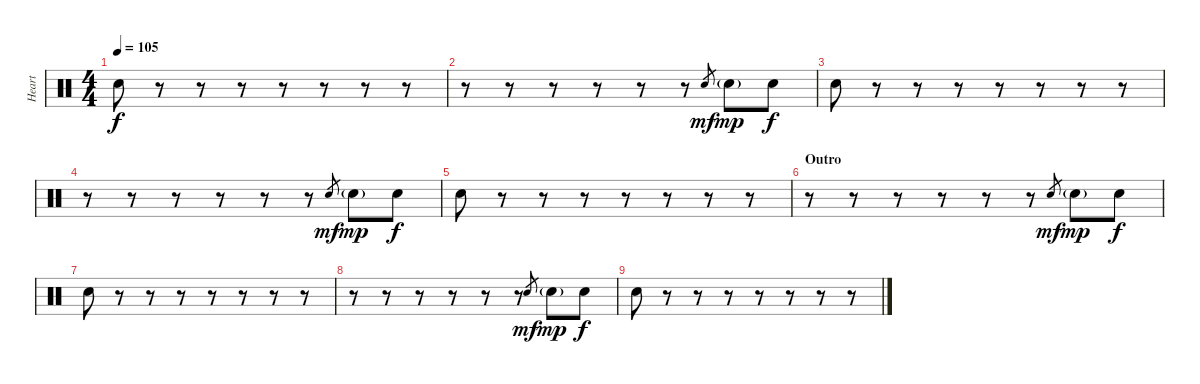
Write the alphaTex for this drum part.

\track ("Heart" "Heart") {instrument percussion}
\staff {score}
\articulation defaults
\ts (4 4)
\tempo 105
\clef neutral
\ks c "Electric Snare (hit)".8{dy f}
r.8 r.8 r.8 r.8 r.8 r.8 r.8 |
r.8 r.8 r.8 r.8 r.8 r.8 "Electric Snare (hit)".8{gr dy mf} "Electric Snare (hit)"{g}.8{dy mp} "Electric Snare (hit)".8{dy f} |
"Electric Snare (hit)".8 r.8 r.8 r.8 r.8 r.8 r.8 r.8 |
r.8 r.8 r.8 r.8 r.8 r.8 "Electric Snare (hit)".8{gr dy mf} "Electric Snare (hit)"{g}.8{dy mp} "Electric Snare (hit)".8{dy f} |
"Electric Snare (hit)".8 r.8 r.8 r.8 r.8 r.8 r.8 r.8 |
\section ("" "Outro")
r.8 r.8 r.8 r.8 r.8 r.8 "Electric Snare (hit)".8{gr dy mf} "Electric Snare (hit)"{g}.8{dy mp} "Electric Snare (hit)".8{dy f} |
"Electric Snare (hit)".8 r.8 r.8 r.8 r.8 r.8 r.8 r.8 |
r.8 r.8 r.8 r.8 r.8 r.8 "Electric Snare (hit)".8{gr dy mf} "Electric Snare (hit)"{g}.8{dy mp} "Electric Snare (hit)".8{dy f} |
"Electric Snare (hit)".8 r.8 r.8 r.8 r.8 r.8 r.8 r.8
